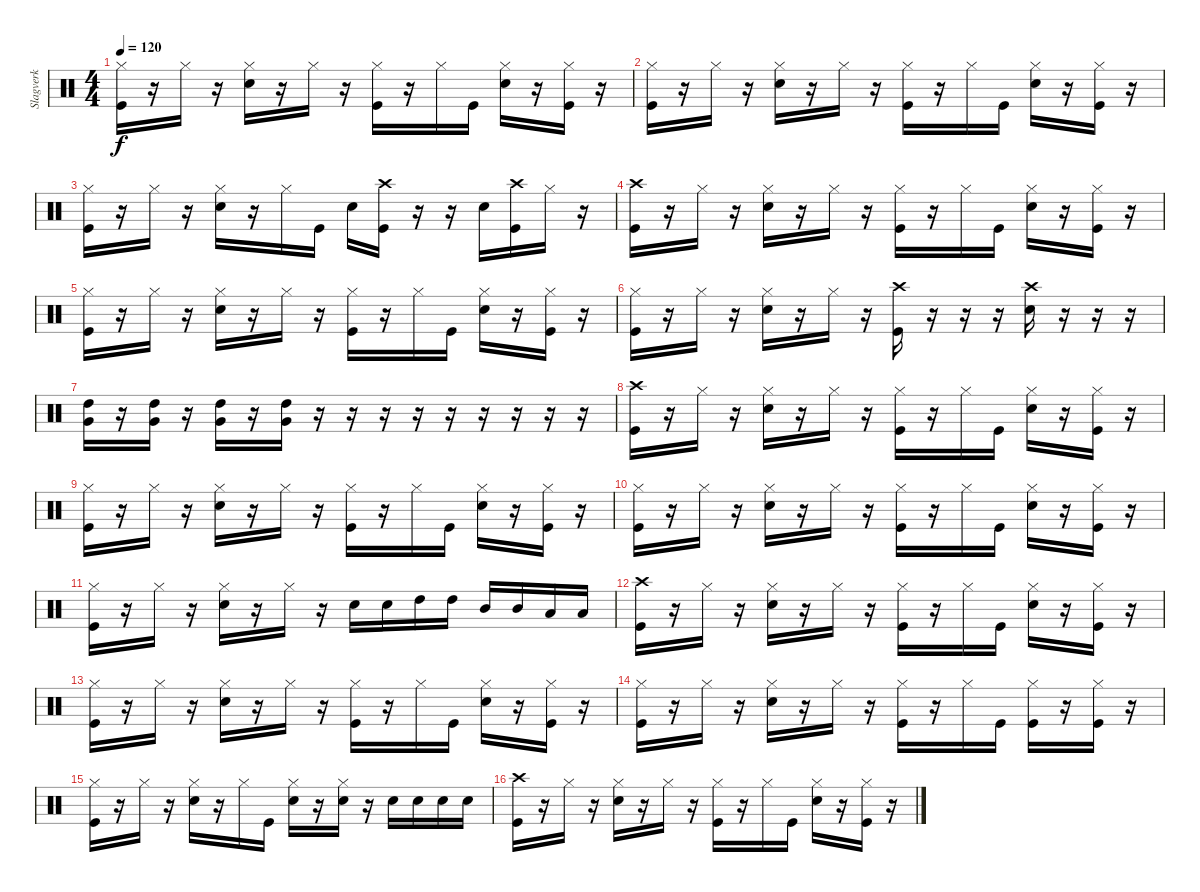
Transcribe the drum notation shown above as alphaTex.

\track ("Slagverk" "Slagverk") {instrument percussion}
\staff {score}
\articulation defaults
\ts (4 4)
\tempo 120
\clef neutral
\ks c
("Hi-Hat (closed)" "Kick (hit)").16{dy f} r.16 "Hi-Hat (closed)".16 r.16 ("Hi-Hat (closed)" "Snare (hit) 2").16 r.16 "Hi-Hat (closed)".16 r.16 ("Hi-Hat (closed)" "Kick (hit)").16 r.16 "Hi-Hat (closed)".16 "Kick (hit)".16 ("Hi-Hat (closed)" "Snare (hit) 2").16 r.16 ("Hi-Hat (closed)" "Kick (hit)").16 r.16 |
("Hi-Hat (closed)" "Kick (hit)").16 r.16 "Hi-Hat (closed)".16 r.16 ("Hi-Hat (closed)" "Snare (hit) 2").16 r.16 "Hi-Hat (closed)".16 r.16 ("Hi-Hat (closed)" "Kick (hit)").16 r.16 "Hi-Hat (closed)".16 "Kick (hit)".16 ("Hi-Hat (closed)" "Snare (hit) 2").16 r.16 ("Hi-Hat (closed)" "Kick (hit)").16 r.16 |
("Hi-Hat (closed)" "Kick (hit)").16 r.16 "Hi-Hat (closed)".16 r.16 ("Hi-Hat (closed)" "Snare (hit) 2").16 r.16 "Hi-Hat (closed)".16 "Kick (hit)".16 "Snare (hit) 2".16 ("Crash high (hit)" "Kick (hit)").16 r.16 r.16 "Snare (hit) 2".16 ("Crash high (hit)" "Kick (hit)").16 "Hi-Hat (closed)".16 r.16 |
("Crash high (hit)" "Kick (hit)").16 r.16 "Hi-Hat (closed)".16 r.16 ("Hi-Hat (closed)" "Snare (hit) 2").16 r.16 "Hi-Hat (closed)".16 r.16 ("Hi-Hat (closed)" "Kick (hit)").16 r.16 "Hi-Hat (closed)".16 "Kick (hit)".16 ("Hi-Hat (closed)" "Snare (hit) 2").16 r.16 ("Hi-Hat (closed)" "Kick (hit)").16 r.16 |
("Hi-Hat (closed)" "Kick (hit)").16 r.16 "Hi-Hat (closed)".16 r.16 ("Hi-Hat (closed)" "Snare (hit) 2").16 r.16 "Hi-Hat (closed)".16 r.16 ("Hi-Hat (closed)" "Kick (hit)").16 r.16 "Hi-Hat (closed)".16 "Kick (hit)".16 ("Hi-Hat (closed)" "Snare (hit) 2").16 r.16 ("Hi-Hat (closed)" "Kick (hit)").16 r.16 |
("Hi-Hat (closed)" "Kick (hit)").16 r.16 "Hi-Hat (closed)".16 r.16 ("Hi-Hat (closed)" "Snare (hit) 2").16 r.16 "Hi-Hat (closed)".16 r.16 ("Crash high (hit)" "Kick (hit)").16 r.16 r.16 r.16 ("Crash high (hit)" "Snare (hit) 2").16 r.16 r.16 r.16 |
("Very Low Tom (hit)" "High Tom (hit)").16 r.16 ("Very Low Tom (hit)" "High Tom (hit)").16 r.16 ("Very Low Tom (hit)" "High Tom (hit)").16 r.16 ("Very Low Tom (hit)" "High Tom (hit)").16 r.16 r.16 r.16 r.16 r.16 r.16 r.16 r.16 r.16 |
("Crash high (hit)" "Kick (hit)").16 r.16 "Hi-Hat (closed)".16 r.16 ("Hi-Hat (closed)" "Snare (hit) 2").16 r.16 "Hi-Hat (closed)".16 r.16 ("Hi-Hat (closed)" "Kick (hit)").16 r.16 "Hi-Hat (closed)".16 "Kick (hit)".16 ("Hi-Hat (closed)" "Snare (hit) 2").16 r.16 ("Hi-Hat (closed)" "Kick (hit)").16 r.16 |
("Hi-Hat (closed)" "Kick (hit)").16 r.16 "Hi-Hat (closed)".16 r.16 ("Hi-Hat (closed)" "Snare (hit) 2").16 r.16 "Hi-Hat (closed)".16 r.16 ("Hi-Hat (closed)" "Kick (hit)").16 r.16 "Hi-Hat (closed)".16 "Kick (hit)".16 ("Hi-Hat (closed)" "Snare (hit) 2").16 r.16 ("Hi-Hat (closed)" "Kick (hit)").16 r.16 |
("Hi-Hat (closed)" "Kick (hit)").16 r.16 "Hi-Hat (closed)".16 r.16 ("Hi-Hat (closed)" "Snare (hit) 2").16 r.16 "Hi-Hat (closed)".16 r.16 ("Hi-Hat (closed)" "Kick (hit)").16 r.16 "Hi-Hat (closed)".16 "Kick (hit)".16 ("Hi-Hat (closed)" "Snare (hit) 2").16 r.16 ("Hi-Hat (closed)" "Kick (hit)").16 r.16 |
("Hi-Hat (closed)" "Kick (hit)").16 r.16 "Hi-Hat (closed)".16 r.16 ("Hi-Hat (closed)" "Snare (hit) 2").16 r.16 "Hi-Hat (closed)".16 r.16 "Snare (hit) 2".16 "Snare (hit) 2".16 "High Tom (hit)".16 "High Tom (hit)".16 "Mid Tom (hit)".16 "Mid Tom (hit)".16 "Low Tom (hit)".16 "Low Tom (hit)".16 |
("Crash high (hit)" "Kick (hit)").16 r.16 "Hi-Hat (closed)".16 r.16 ("Hi-Hat (closed)" "Snare (hit) 2").16 r.16 "Hi-Hat (closed)".16 r.16 ("Hi-Hat (closed)" "Kick (hit)").16 r.16 "Hi-Hat (closed)".16 "Kick (hit)".16 ("Hi-Hat (closed)" "Snare (hit) 2").16 r.16 ("Hi-Hat (closed)" "Kick (hit)").16 r.16 |
("Hi-Hat (closed)" "Kick (hit)").16 r.16 "Hi-Hat (closed)".16 r.16 ("Hi-Hat (closed)" "Snare (hit) 2").16 r.16 "Hi-Hat (closed)".16 r.16 ("Hi-Hat (closed)" "Kick (hit)").16 r.16 "Hi-Hat (closed)".16 "Kick (hit)".16 ("Hi-Hat (closed)" "Snare (hit) 2").16 r.16 ("Hi-Hat (closed)" "Kick (hit)").16 r.16 |
("Hi-Hat (closed)" "Kick (hit)").16 r.16 "Hi-Hat (closed)".16 r.16 ("Hi-Hat (closed)" "Snare (hit) 2").16 r.16 "Hi-Hat (closed)".16 r.16 ("Hi-Hat (closed)" "Kick (hit)").16 r.16 "Hi-Hat (closed)".16 "Kick (hit)".16 ("Hi-Hat (closed)" "Kick (hit)").16 r.16 ("Hi-Hat (closed)" "Kick (hit)").16 r.16 |
("Hi-Hat (closed)" "Kick (hit)").16 r.16 "Hi-Hat (closed)".16 r.16 ("Hi-Hat (closed)" "Snare (hit) 2").16 r.16 "Hi-Hat (closed)".16 "Kick (hit)".16 ("Hi-Hat (closed)" "Snare (hit) 2").16 r.16 ("Hi-Hat (closed)" "Snare (hit) 2").16 r.16 "Snare (hit) 2".16 "Snare (hit) 2".16 "Snare (hit) 2".16 "Snare (hit) 2".16 |
("Crash high (hit)" "Kick (hit)").16 r.16 "Hi-Hat (closed)".16 r.16 ("Hi-Hat (closed)" "Snare (hit) 2").16 r.16 "Hi-Hat (closed)".16 r.16 ("Hi-Hat (closed)" "Kick (hit)").16 r.16 "Hi-Hat (closed)".16 "Kick (hit)".16 ("Hi-Hat (closed)" "Snare (hit) 2").16 r.16 ("Hi-Hat (closed)" "Kick (hit)").16 r.16
